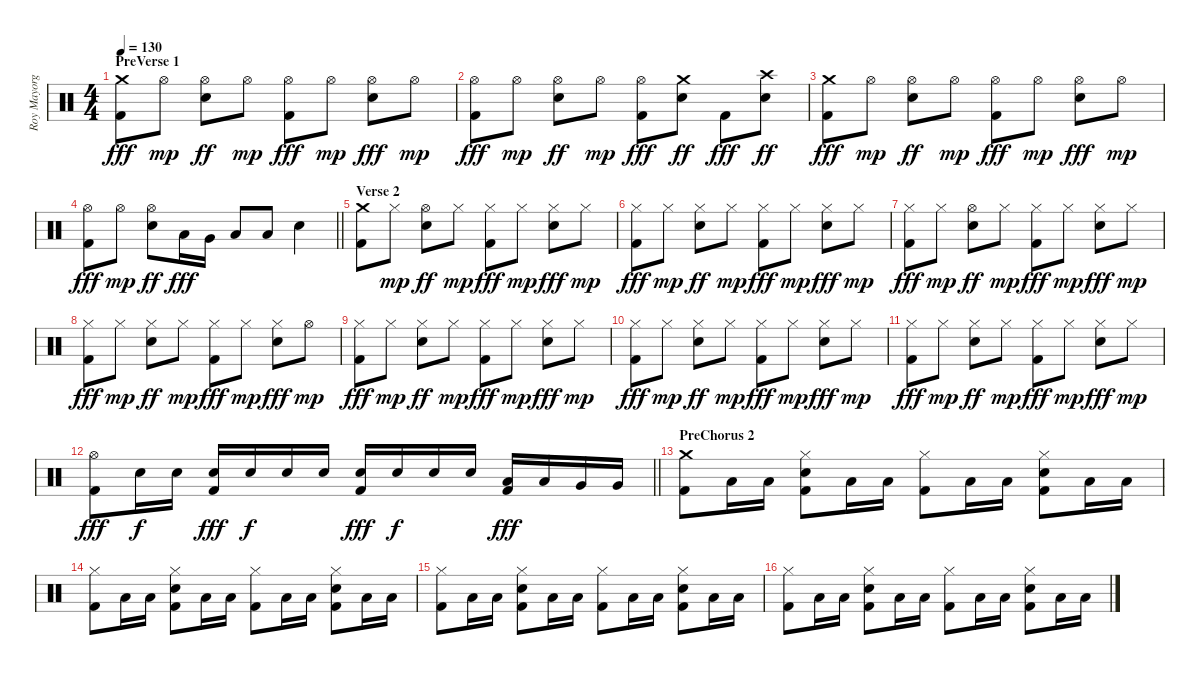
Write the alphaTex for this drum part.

\track ("Roy Mayorga" "Roy Mayorg") {instrument percussion}
\staff {score}
\articulation defaults
\ts (4 4)
\section ("" "PreVerse 1")
\tempo 130
\clef neutral
\ks c
("Crash medium (hit)" "Kick (hit) 2").8{dy fff} "Hi-Hat (open)".8{dy mp} ("Hi-Hat (open)" "Electric Snare (hit)").8{dy ff} "Hi-Hat (open)".8{dy mp} ("Hi-Hat (open)" "Kick (hit) 2").8{dy fff} "Hi-Hat (open)".8{dy mp} ("Hi-Hat (open)" "Electric Snare (hit)").8{dy fff} "Hi-Hat (open)".8{dy mp} |
("Hi-Hat (open)" "Kick (hit) 2").8{dy fff} "Hi-Hat (open)".8{dy mp} ("Hi-Hat (open)" "Electric Snare (hit)").8{dy ff} "Hi-Hat (open)".8{dy mp} ("Hi-Hat (open)" "Kick (hit) 2").8{dy fff} ("Crash medium (hit)" "Electric Snare (hit)").8{dy ff} "Kick (hit) 2".8{dy fff} ("Crash high (hit)" "Electric Snare (hit)").8{dy ff} |
("Crash medium (hit)" "Kick (hit) 2").8{dy fff} "Hi-Hat (open)".8{dy mp} ("Hi-Hat (open)" "Electric Snare (hit)").8{dy ff} "Hi-Hat (open)".8{dy mp} ("Hi-Hat (open)" "Kick (hit) 2").8{dy fff} "Hi-Hat (open)".8{dy mp} ("Hi-Hat (open)" "Electric Snare (hit)").8{dy fff} "Hi-Hat (open)".8{dy mp} |
\barLineRight lightlight
("Hi-Hat (open)" "Kick (hit) 2").8{dy fff} "Hi-Hat (open)".8{dy mp} ("Hi-Hat (open)" "Electric Snare (hit)").8{dy ff} "Low Tom (hit)".16{dy fff} "Very Low Tom (hit)".16 "Low Floor Tom (hit)".8 "Low Floor Tom (hit)".8 "Electric Snare (hit)".4 |
\section ("" "Verse 2")
("Crash medium (hit)" "Kick (hit) 2").8 "Hi-Hat (closed)".8{dy mp} ("Hi-Hat (open)" "Electric Snare (hit)").8{dy ff} "Hi-Hat (closed)".8{dy mp} ("Hi-Hat (closed)" "Kick (hit) 2").8{dy fff} "Hi-Hat (closed)".8{dy mp} ("Hi-Hat (closed)" "Electric Snare (hit)").8{dy fff} "Hi-Hat (closed)".8{dy mp} |
("Hi-Hat (closed)" "Kick (hit) 2").8{dy fff} "Hi-Hat (closed)".8{dy mp} ("Hi-Hat (closed)" "Electric Snare (hit)").8{dy ff} "Hi-Hat (closed)".8{dy mp} ("Hi-Hat (closed)" "Kick (hit) 2").8{dy fff} "Hi-Hat (closed)".8{dy mp} ("Hi-Hat (closed)" "Electric Snare (hit)").8{dy fff} "Hi-Hat (closed)".8{dy mp} |
("Hi-Hat (closed)" "Kick (hit) 2").8{dy fff} "Hi-Hat (closed)".8{dy mp} ("Hi-Hat (open)" "Electric Snare (hit)").8{dy ff} "Hi-Hat (closed)".8{dy mp} ("Hi-Hat (closed)" "Kick (hit) 2").8{dy fff} "Hi-Hat (closed)".8{dy mp} ("Hi-Hat (closed)" "Electric Snare (hit)").8{dy fff} "Hi-Hat (closed)".8{dy mp} |
("Hi-Hat (closed)" "Kick (hit) 2").8{dy fff} "Hi-Hat (closed)".8{dy mp} ("Hi-Hat (closed)" "Electric Snare (hit)").8{dy ff} "Hi-Hat (closed)".8{dy mp} ("Hi-Hat (closed)" "Kick (hit) 2").8{dy fff} "Hi-Hat (closed)".8{dy mp} ("Hi-Hat (closed)" "Electric Snare (hit)").8{dy fff} "Hi-Hat (open)".8{dy mp} |
("Hi-Hat (closed)" "Kick (hit) 2").8{dy fff} "Hi-Hat (closed)".8{dy mp} ("Hi-Hat (closed)" "Electric Snare (hit)").8{dy ff} "Hi-Hat (closed)".8{dy mp} ("Hi-Hat (closed)" "Kick (hit) 2").8{dy fff} "Hi-Hat (closed)".8{dy mp} ("Hi-Hat (closed)" "Electric Snare (hit)").8{dy fff} "Hi-Hat (closed)".8{dy mp} |
("Hi-Hat (closed)" "Kick (hit) 2").8{dy fff} "Hi-Hat (closed)".8{dy mp} ("Hi-Hat (closed)" "Electric Snare (hit)").8{dy ff} "Hi-Hat (closed)".8{dy mp} ("Hi-Hat (closed)" "Kick (hit) 2").8{dy fff} "Hi-Hat (closed)".8{dy mp} ("Hi-Hat (closed)" "Electric Snare (hit)").8{dy fff} "Hi-Hat (closed)".8{dy mp} |
("Hi-Hat (closed)" "Kick (hit) 2").8{dy fff} "Hi-Hat (closed)".8{dy mp} ("Hi-Hat (closed)" "Electric Snare (hit)").8{dy ff} "Hi-Hat (closed)".8{dy mp} ("Hi-Hat (closed)" "Kick (hit) 2").8{dy fff} "Hi-Hat (closed)".8{dy mp} ("Hi-Hat (closed)" "Electric Snare (hit)").8{dy fff} "Hi-Hat (closed)".8{dy mp} |
\barLineRight lightlight
("Hi-Hat (open)" "Kick (hit) 2").8{dy fff} "Electric Snare (hit)".16{dy f} "Electric Snare (hit)".16 ("Electric Snare (hit)" "Kick (hit) 2").16{dy fff} "Electric Snare (hit)".16{dy f} "Electric Snare (hit)".16 "Electric Snare (hit)".16 ("Electric Snare (hit)" "Kick (hit) 2").16{dy fff} "Electric Snare (hit)".16{dy f} "Electric Snare (hit)".16 "Electric Snare (hit)".16 ("Low Tom (hit)" "Kick (hit) 2").16{dy fff} "Low Tom (hit)".16 "Very Low Tom (hit)".16 "Very Low Tom (hit)".16 |
\section ("" "PreChorus 2")
("Crash medium (hit)" "Kick (hit) 2").8 "Low Floor Tom (hit)".16 "Low Floor Tom (hit)".16 ("Hi-Hat (closed)" "Electric Snare (hit)" "Kick (hit) 2").8 "Low Floor Tom (hit)".16 "Low Floor Tom (hit)".16 ("Hi-Hat (closed)" "Kick (hit) 2").8 "Low Floor Tom (hit)".16 "Low Floor Tom (hit)".16 ("Hi-Hat (closed)" "Electric Snare (hit)" "Kick (hit) 2").8 "Low Floor Tom (hit)".16 "Low Floor Tom (hit)".16 |
("Hi-Hat (closed)" "Kick (hit) 2").8 "Low Floor Tom (hit)".16 "Low Floor Tom (hit)".16 ("Hi-Hat (closed)" "Electric Snare (hit)" "Kick (hit) 2").8 "Low Floor Tom (hit)".16 "Low Floor Tom (hit)".16 ("Hi-Hat (closed)" "Kick (hit) 2").8 "Low Floor Tom (hit)".16 "Low Floor Tom (hit)".16 ("Hi-Hat (closed)" "Electric Snare (hit)" "Kick (hit) 2").8 "Low Floor Tom (hit)".16 "Low Floor Tom (hit)".16 |
("Hi-Hat (closed)" "Kick (hit) 2").8 "Low Floor Tom (hit)".16 "Low Floor Tom (hit)".16 ("Hi-Hat (closed)" "Electric Snare (hit)" "Kick (hit) 2").8 "Low Floor Tom (hit)".16 "Low Floor Tom (hit)".16 ("Hi-Hat (closed)" "Kick (hit) 2").8 "Low Floor Tom (hit)".16 "Low Floor Tom (hit)".16 ("Hi-Hat (closed)" "Electric Snare (hit)" "Kick (hit) 2").8 "Low Floor Tom (hit)".16 "Low Floor Tom (hit)".16 |
("Hi-Hat (closed)" "Kick (hit) 2").8 "Low Floor Tom (hit)".16 "Low Floor Tom (hit)".16 ("Hi-Hat (closed)" "Electric Snare (hit)" "Kick (hit) 2").8 "Low Floor Tom (hit)".16 "Low Floor Tom (hit)".16 ("Hi-Hat (closed)" "Kick (hit) 2").8 "Low Floor Tom (hit)".16 "Low Floor Tom (hit)".16 ("Hi-Hat (closed)" "Electric Snare (hit)" "Kick (hit) 2").8 "Low Floor Tom (hit)".16 "Low Floor Tom (hit)".16
